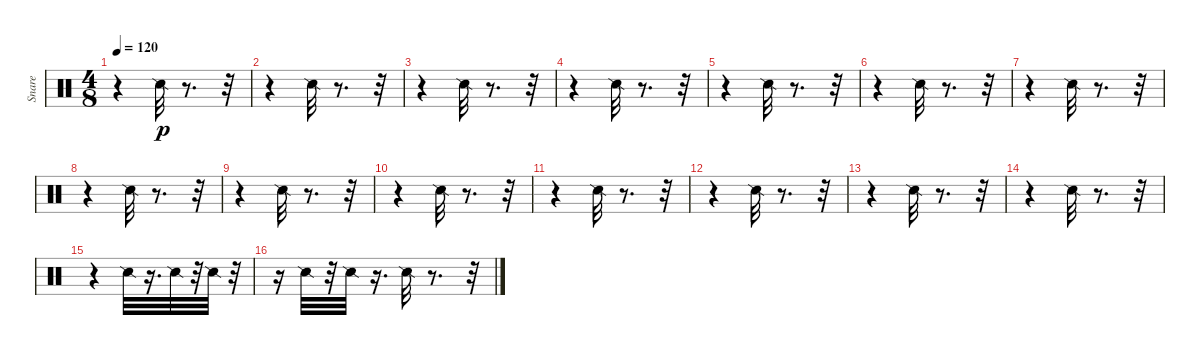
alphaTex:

\track ("Snare" "Snare") {instrument percussion}
\staff {score}
\articulation defaults
\ts (4 8)
\tempo 120
\clef neutral
\ks c
r.4{dy p} "Snare (side stick) 2".32 r.8{d} r.32 |
r.4 "Snare (side stick) 2".32 r.8{d} r.32 |
r.4 "Snare (side stick) 2".32 r.8{d} r.32 |
r.4 "Snare (side stick) 2".32 r.8{d} r.32 |
r.4 "Snare (side stick) 2".32 r.8{d} r.32 |
r.4 "Snare (side stick) 2".32 r.8{d} r.32 |
r.4 "Snare (side stick) 2".32 r.8{d} r.32 |
r.4 "Snare (side stick) 2".32 r.8{d} r.32 |
r.4 "Snare (side stick) 2".32 r.8{d} r.32 |
r.4 "Snare (side stick) 2".32 r.8{d} r.32 |
r.4 "Snare (side stick) 2".32 r.8{d} r.32 |
r.4 "Snare (side stick) 2".32 r.8{d} r.32 |
r.4 "Snare (side stick) 2".32 r.8{d} r.32 |
r.4 "Snare (side stick) 2".32 r.8{d} r.32 |
r.4 "Snare (side stick) 2".32 r.16{d} "Snare (side stick) 2".32 r.32 "Snare (side stick) 2".32 r.32 |
r.16 "Snare (side stick) 2".32 r.32 "Snare (side stick) 2".32 r.16{d} "Snare (side stick) 2".32 r.8{d} r.32
